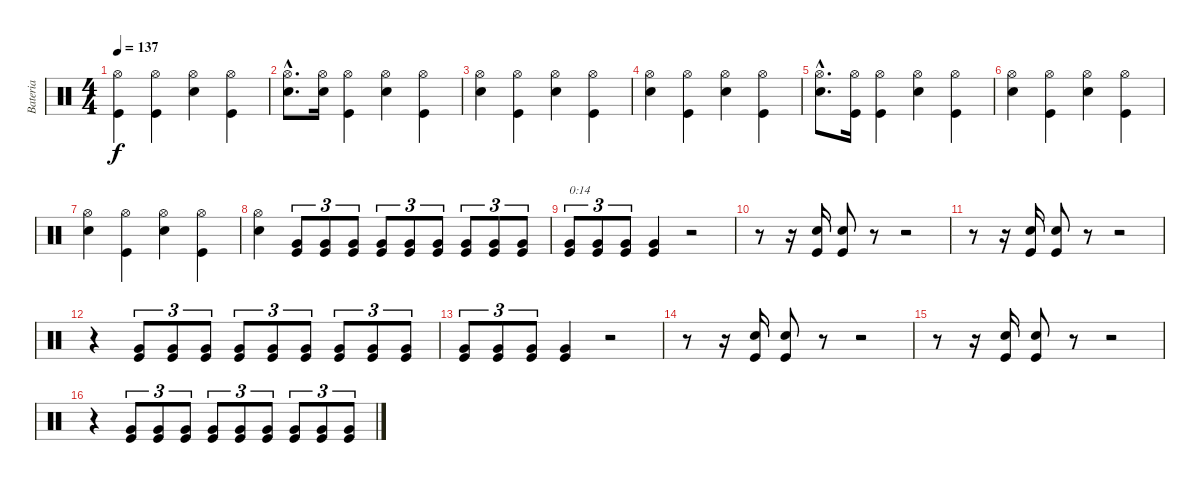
\track ("Bateria" "Bateria") {instrument percussion}
\staff {score}
\articulation defaults
\ts (4 4)
\tempo 137
\clef neutral
\ks c
("Kick (hit)" "Hi-Hat (open)").4{dy f} ("Kick (hit)" "Hi-Hat (open)").4 ("Snare (hit) 2" "Hi-Hat (open)").4 ("Kick (hit)" "Hi-Hat (open)").4 |
("Snare (hit) 2"{hac} "Hi-Hat (open)"{hac}).8{d} ("Snare (hit) 2" "Hi-Hat (open)").16 ("Kick (hit)" "Hi-Hat (open)").4 ("Snare (hit) 2" "Hi-Hat (open)").4 ("Kick (hit)" "Hi-Hat (open)").4 |
("Snare (hit) 2" "Hi-Hat (open)").4 ("Kick (hit)" "Hi-Hat (open)").4 ("Snare (hit) 2" "Hi-Hat (open)").4 ("Kick (hit)" "Hi-Hat (open)").4 |
("Snare (hit) 2" "Hi-Hat (open)").4 ("Kick (hit)" "Hi-Hat (open)").4 ("Snare (hit) 2" "Hi-Hat (open)").4 ("Kick (hit)" "Hi-Hat (open)").4 |
("Snare (hit) 2"{hac} "Hi-Hat (open)"{hac}).8{d} ("Kick (hit)" "Hi-Hat (open)").16 ("Kick (hit)" "Hi-Hat (open)").4 ("Snare (hit) 2" "Hi-Hat (open)").4 ("Kick (hit)" "Hi-Hat (open)").4 |
("Snare (hit) 2" "Hi-Hat (open)").4 ("Kick (hit)" "Hi-Hat (open)").4 ("Snare (hit) 2" "Hi-Hat (open)").4 ("Kick (hit)" "Hi-Hat (open)").4 |
("Snare (hit) 2" "Hi-Hat (open)").4 ("Kick (hit)" "Hi-Hat (open)").4 ("Snare (hit) 2" "Hi-Hat (open)").4 ("Kick (hit)" "Hi-Hat (open)").4 |
("Snare (hit) 2" "Hi-Hat (open)").4 ("Kick (hit)" "Very Low Tom (hit)").8{tu (3 2)} ("Kick (hit)" "Very Low Tom (hit)").8{tu (3 2)} ("Kick (hit)" "Very Low Tom (hit)").8{tu (3 2)} ("Kick (hit)" "Very Low Tom (hit)").8{tu (3 2)} ("Kick (hit)" "Very Low Tom (hit)").8{tu (3 2)} ("Kick (hit)" "Very Low Tom (hit)").8{tu (3 2)} ("Kick (hit)" "Very Low Tom (hit)").8{tu (3 2)} ("Kick (hit)" "Very Low Tom (hit)").8{tu (3 2)} ("Kick (hit)" "Very Low Tom (hit)").8{tu (3 2)} |
("Kick (hit)" "Very Low Tom (hit)").8{tu (3 2) txt "0:14"} ("Kick (hit)" "Very Low Tom (hit)").8{tu (3 2)} ("Kick (hit)" "Very Low Tom (hit)").8{tu (3 2)} ("Kick (hit)" "Very Low Tom (hit)").4 r.2 |
r.8 r.16 ("Kick (hit)" "Snare (hit) 2").16 ("Kick (hit)" "Snare (hit) 2").8 r.8 r.2 |
r.8 r.16 ("Kick (hit)" "Snare (hit) 2").16 ("Kick (hit)" "Snare (hit) 2").8 r.8 r.2 |
r.4 ("Kick (hit)" "Very Low Tom (hit)").8{tu (3 2)} ("Kick (hit)" "Very Low Tom (hit)").8{tu (3 2)} ("Kick (hit)" "Very Low Tom (hit)").8{tu (3 2)} ("Kick (hit)" "Very Low Tom (hit)").8{tu (3 2)} ("Kick (hit)" "Very Low Tom (hit)").8{tu (3 2)} ("Kick (hit)" "Very Low Tom (hit)").8{tu (3 2)} ("Kick (hit)" "Very Low Tom (hit)").8{tu (3 2)} ("Kick (hit)" "Very Low Tom (hit)").8{tu (3 2)} ("Kick (hit)" "Very Low Tom (hit)").8{tu (3 2)} |
("Kick (hit)" "Very Low Tom (hit)").8{tu (3 2)} ("Kick (hit)" "Very Low Tom (hit)").8{tu (3 2)} ("Kick (hit)" "Very Low Tom (hit)").8{tu (3 2)} ("Kick (hit)" "Very Low Tom (hit)").4 r.2 |
r.8 r.16 ("Kick (hit)" "Snare (hit) 2").16 ("Kick (hit)" "Snare (hit) 2").8 r.8 r.2 |
r.8 r.16 ("Kick (hit)" "Snare (hit) 2").16 ("Kick (hit)" "Snare (hit) 2").8 r.8 r.2 |
r.4 ("Kick (hit)" "Very Low Tom (hit)").8{tu (3 2)} ("Kick (hit)" "Very Low Tom (hit)").8{tu (3 2)} ("Kick (hit)" "Very Low Tom (hit)").8{tu (3 2)} ("Kick (hit)" "Very Low Tom (hit)").8{tu (3 2)} ("Kick (hit)" "Very Low Tom (hit)").8{tu (3 2)} ("Kick (hit)" "Very Low Tom (hit)").8{tu (3 2)} ("Kick (hit)" "Very Low Tom (hit)").8{tu (3 2)} ("Kick (hit)" "Very Low Tom (hit)").8{tu (3 2)} ("Kick (hit)" "Very Low Tom (hit)").8{tu (3 2)}
